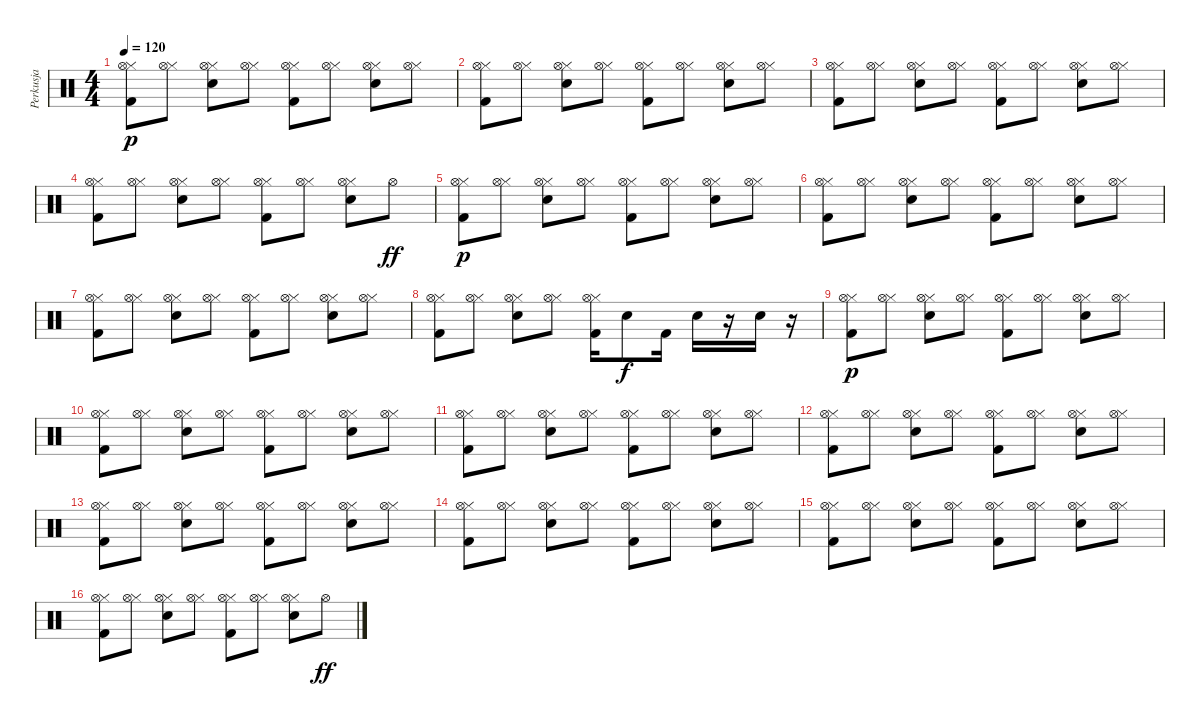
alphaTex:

\track ("Perkusja" "Perkusja") {instrument percussion}
\staff {score}
\articulation defaults
\ts (4 4)
\tempo 120
\clef neutral
\ks c
("Kick (hit) 2" "Hi-Hat (closed)" "Hi-Hat (open)").8{dy p} ("Hi-Hat (closed)" "Hi-Hat (open)").8 ("Electric Snare (hit)" "Hi-Hat (closed)" "Hi-Hat (open)").8 ("Hi-Hat (closed)" "Hi-Hat (open)").8 ("Kick (hit) 2" "Hi-Hat (closed)" "Hi-Hat (open)").8 ("Hi-Hat (closed)" "Hi-Hat (open)").8 ("Electric Snare (hit)" "Hi-Hat (closed)" "Hi-Hat (open)").8 ("Hi-Hat (closed)" "Hi-Hat (open)").8 |
("Kick (hit) 2" "Hi-Hat (closed)" "Hi-Hat (open)").8 ("Hi-Hat (closed)" "Hi-Hat (open)").8 ("Electric Snare (hit)" "Hi-Hat (closed)" "Hi-Hat (open)").8 ("Hi-Hat (closed)" "Hi-Hat (open)").8 ("Kick (hit) 2" "Hi-Hat (closed)" "Hi-Hat (open)").8 ("Hi-Hat (closed)" "Hi-Hat (open)").8 ("Electric Snare (hit)" "Hi-Hat (closed)" "Hi-Hat (open)").8 ("Hi-Hat (closed)" "Hi-Hat (open)").8 |
("Kick (hit) 2" "Hi-Hat (closed)" "Hi-Hat (open)").8 ("Hi-Hat (closed)" "Hi-Hat (open)").8 ("Electric Snare (hit)" "Hi-Hat (closed)" "Hi-Hat (open)").8 ("Hi-Hat (closed)" "Hi-Hat (open)").8 ("Kick (hit) 2" "Hi-Hat (closed)" "Hi-Hat (open)").8 ("Hi-Hat (closed)" "Hi-Hat (open)").8 ("Electric Snare (hit)" "Hi-Hat (closed)" "Hi-Hat (open)").8 ("Hi-Hat (closed)" "Hi-Hat (open)").8 |
("Kick (hit) 2" "Hi-Hat (closed)" "Hi-Hat (open)").8 ("Hi-Hat (closed)" "Hi-Hat (open)").8 ("Electric Snare (hit)" "Hi-Hat (closed)" "Hi-Hat (open)").8 ("Hi-Hat (closed)" "Hi-Hat (open)").8 ("Kick (hit) 2" "Hi-Hat (closed)" "Hi-Hat (open)").8 ("Hi-Hat (closed)" "Hi-Hat (open)").8 ("Electric Snare (hit)" "Hi-Hat (closed)" "Hi-Hat (open)").8 "Hi-Hat (open)".8{dy ff} |
("Kick (hit) 2" "Hi-Hat (closed)" "Hi-Hat (open)").8{dy p} ("Hi-Hat (closed)" "Hi-Hat (open)").8 ("Electric Snare (hit)" "Hi-Hat (closed)" "Hi-Hat (open)").8 ("Hi-Hat (closed)" "Hi-Hat (open)").8 ("Kick (hit) 2" "Hi-Hat (closed)" "Hi-Hat (open)").8 ("Hi-Hat (closed)" "Hi-Hat (open)").8 ("Electric Snare (hit)" "Hi-Hat (closed)" "Hi-Hat (open)").8 ("Hi-Hat (closed)" "Hi-Hat (open)").8 |
("Kick (hit) 2" "Hi-Hat (closed)" "Hi-Hat (open)").8 ("Hi-Hat (closed)" "Hi-Hat (open)").8 ("Electric Snare (hit)" "Hi-Hat (closed)" "Hi-Hat (open)").8 ("Hi-Hat (closed)" "Hi-Hat (open)").8 ("Kick (hit) 2" "Hi-Hat (closed)" "Hi-Hat (open)").8 ("Hi-Hat (closed)" "Hi-Hat (open)").8 ("Electric Snare (hit)" "Hi-Hat (closed)" "Hi-Hat (open)").8 ("Hi-Hat (closed)" "Hi-Hat (open)").8 |
("Kick (hit) 2" "Hi-Hat (closed)" "Hi-Hat (open)").8 ("Hi-Hat (closed)" "Hi-Hat (open)").8 ("Electric Snare (hit)" "Hi-Hat (closed)" "Hi-Hat (open)").8 ("Hi-Hat (closed)" "Hi-Hat (open)").8 ("Kick (hit) 2" "Hi-Hat (closed)" "Hi-Hat (open)").8 ("Hi-Hat (closed)" "Hi-Hat (open)").8 ("Electric Snare (hit)" "Hi-Hat (closed)" "Hi-Hat (open)").8 ("Hi-Hat (closed)" "Hi-Hat (open)").8 |
("Kick (hit) 2" "Hi-Hat (closed)" "Hi-Hat (open)").8 ("Hi-Hat (closed)" "Hi-Hat (open)").8 ("Electric Snare (hit)" "Hi-Hat (closed)" "Hi-Hat (open)").8 ("Hi-Hat (closed)" "Hi-Hat (open)").8 ("Kick (hit) 2" "Hi-Hat (closed)" "Hi-Hat (open)").16 "Electric Snare (hit)".8{dy f} "Kick (hit) 2".16 "Electric Snare (hit)".16 r.16 "Electric Snare (hit)".16 r.16 |
("Kick (hit) 2" "Hi-Hat (closed)" "Hi-Hat (open)").8{dy p} ("Hi-Hat (closed)" "Hi-Hat (open)").8 ("Electric Snare (hit)" "Hi-Hat (closed)" "Hi-Hat (open)").8 ("Hi-Hat (closed)" "Hi-Hat (open)").8 ("Kick (hit) 2" "Hi-Hat (closed)" "Hi-Hat (open)").8 ("Hi-Hat (closed)" "Hi-Hat (open)").8 ("Electric Snare (hit)" "Hi-Hat (closed)" "Hi-Hat (open)").8 ("Hi-Hat (closed)" "Hi-Hat (open)").8 |
("Kick (hit) 2" "Hi-Hat (closed)" "Hi-Hat (open)").8 ("Hi-Hat (closed)" "Hi-Hat (open)").8 ("Electric Snare (hit)" "Hi-Hat (closed)" "Hi-Hat (open)").8 ("Hi-Hat (closed)" "Hi-Hat (open)").8 ("Kick (hit) 2" "Hi-Hat (closed)" "Hi-Hat (open)").8 ("Hi-Hat (closed)" "Hi-Hat (open)").8 ("Electric Snare (hit)" "Hi-Hat (closed)" "Hi-Hat (open)").8 ("Hi-Hat (closed)" "Hi-Hat (open)").8 |
("Kick (hit) 2" "Hi-Hat (closed)" "Hi-Hat (open)").8 ("Hi-Hat (closed)" "Hi-Hat (open)").8 ("Electric Snare (hit)" "Hi-Hat (closed)" "Hi-Hat (open)").8 ("Hi-Hat (closed)" "Hi-Hat (open)").8 ("Kick (hit) 2" "Hi-Hat (closed)" "Hi-Hat (open)").8 ("Hi-Hat (closed)" "Hi-Hat (open)").8 ("Electric Snare (hit)" "Hi-Hat (closed)" "Hi-Hat (open)").8 ("Hi-Hat (closed)" "Hi-Hat (open)").8 |
("Kick (hit) 2" "Hi-Hat (closed)" "Hi-Hat (open)").8 ("Hi-Hat (closed)" "Hi-Hat (open)").8 ("Electric Snare (hit)" "Hi-Hat (closed)" "Hi-Hat (open)").8 ("Hi-Hat (closed)" "Hi-Hat (open)").8 ("Kick (hit) 2" "Hi-Hat (closed)" "Hi-Hat (open)").8 ("Hi-Hat (closed)" "Hi-Hat (open)").8 ("Electric Snare (hit)" "Hi-Hat (closed)" "Hi-Hat (open)").8 ("Hi-Hat (closed)" "Hi-Hat (open)").8 |
("Kick (hit) 2" "Hi-Hat (closed)" "Hi-Hat (open)").8 ("Hi-Hat (closed)" "Hi-Hat (open)").8 ("Electric Snare (hit)" "Hi-Hat (closed)" "Hi-Hat (open)").8 ("Hi-Hat (closed)" "Hi-Hat (open)").8 ("Kick (hit) 2" "Hi-Hat (closed)" "Hi-Hat (open)").8 ("Hi-Hat (closed)" "Hi-Hat (open)").8 ("Electric Snare (hit)" "Hi-Hat (closed)" "Hi-Hat (open)").8 ("Hi-Hat (closed)" "Hi-Hat (open)").8 |
("Kick (hit) 2" "Hi-Hat (closed)" "Hi-Hat (open)").8 ("Hi-Hat (closed)" "Hi-Hat (open)").8 ("Electric Snare (hit)" "Hi-Hat (closed)" "Hi-Hat (open)").8 ("Hi-Hat (closed)" "Hi-Hat (open)").8 ("Kick (hit) 2" "Hi-Hat (closed)" "Hi-Hat (open)").8 ("Hi-Hat (closed)" "Hi-Hat (open)").8 ("Electric Snare (hit)" "Hi-Hat (closed)" "Hi-Hat (open)").8 ("Hi-Hat (closed)" "Hi-Hat (open)").8 |
("Kick (hit) 2" "Hi-Hat (closed)" "Hi-Hat (open)").8 ("Hi-Hat (closed)" "Hi-Hat (open)").8 ("Electric Snare (hit)" "Hi-Hat (closed)" "Hi-Hat (open)").8 ("Hi-Hat (closed)" "Hi-Hat (open)").8 ("Kick (hit) 2" "Hi-Hat (closed)" "Hi-Hat (open)").8 ("Hi-Hat (closed)" "Hi-Hat (open)").8 ("Electric Snare (hit)" "Hi-Hat (closed)" "Hi-Hat (open)").8 ("Hi-Hat (closed)" "Hi-Hat (open)").8 |
("Kick (hit) 2" "Hi-Hat (closed)" "Hi-Hat (open)").8 ("Hi-Hat (closed)" "Hi-Hat (open)").8 ("Electric Snare (hit)" "Hi-Hat (closed)" "Hi-Hat (open)").8 ("Hi-Hat (closed)" "Hi-Hat (open)").8 ("Kick (hit) 2" "Hi-Hat (closed)" "Hi-Hat (open)").8 ("Hi-Hat (closed)" "Hi-Hat (open)").8 ("Electric Snare (hit)" "Hi-Hat (closed)" "Hi-Hat (open)").8 "Hi-Hat (open)".8{dy ff}
